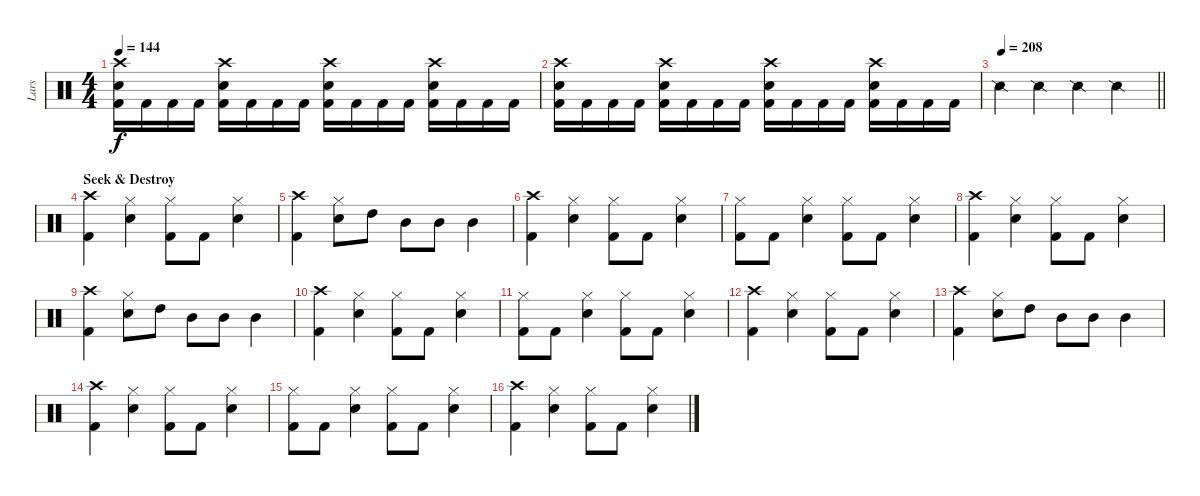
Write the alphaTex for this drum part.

\track ("Lars" "Lars") {instrument percussion}
\staff {score}
\articulation defaults
\ts (4 4)
\tempo 144
\clef neutral
\ks c
("Crash high (hit)" "Snare (hit) 2" "Kick (hit) 2").16{dy f} "Kick (hit) 2".16 "Kick (hit) 2".16 "Kick (hit) 2".16 ("Crash high (hit)" "Snare (hit) 2" "Kick (hit) 2").16 "Kick (hit) 2".16 "Kick (hit) 2".16 "Kick (hit) 2".16 ("Crash high (hit)" "Snare (hit) 2" "Kick (hit) 2").16 "Kick (hit) 2".16 "Kick (hit) 2".16 "Kick (hit) 2".16 ("Crash high (hit)" "Snare (hit) 2" "Kick (hit) 2").16 "Kick (hit) 2".16 "Kick (hit) 2".16 "Kick (hit) 2".16 |
("Crash high (hit)" "Snare (hit) 2" "Kick (hit) 2").16 "Kick (hit) 2".16 "Kick (hit) 2".16 "Kick (hit) 2".16 ("Crash high (hit)" "Snare (hit) 2" "Kick (hit) 2").16 "Kick (hit) 2".16 "Kick (hit) 2".16 "Kick (hit) 2".16 ("Crash high (hit)" "Snare (hit) 2" "Kick (hit) 2").16 "Kick (hit) 2".16 "Kick (hit) 2".16 "Kick (hit) 2".16 ("Crash high (hit)" "Snare (hit) 2" "Kick (hit) 2").16 "Kick (hit) 2".16 "Kick (hit) 2".16 "Kick (hit) 2".16 |
\tempo 208
\barLineRight lightlight "Snare (side stick) 2".4 "Snare (side stick) 2".4 "Snare (side stick) 2".4 "Snare (side stick) 2".4
|
\section ("" "Seek & Destroy")
("Crash high (hit)" "Kick (hit) 2").4 ("Hi-Hat (closed)" "Snare (hit) 2").4 ("Hi-Hat (closed)" "Kick (hit) 2").8 "Kick (hit) 2".8 ("Hi-Hat (closed)" "Snare (hit) 2").4 |
("Crash high (hit)" "Kick (hit) 2").4 ("Hi-Hat (closed)" "Snare (hit) 2").8 "High Tom (hit)".8 "Mid Tom (hit)".8 "Mid Tom (hit)".8 "Mid Tom (hit)".4 |
("Crash high (hit)" "Kick (hit) 2").4 ("Hi-Hat (closed)" "Snare (hit) 2").4 ("Hi-Hat (closed)" "Kick (hit) 2").8 "Kick (hit) 2".8 ("Hi-Hat (closed)" "Snare (hit) 2").4 |
("Hi-Hat (closed)" "Kick (hit) 2").8 "Kick (hit) 2".8 ("Hi-Hat (closed)" "Snare (hit) 2").4 ("Hi-Hat (closed)" "Kick (hit) 2").8 "Kick (hit) 2".8 ("Hi-Hat (closed)" "Snare (hit) 2").4 |
("Crash high (hit)" "Kick (hit) 2").4 ("Hi-Hat (closed)" "Snare (hit) 2").4 ("Hi-Hat (closed)" "Kick (hit) 2").8 "Kick (hit) 2".8 ("Hi-Hat (closed)" "Snare (hit) 2").4 |
("Crash high (hit)" "Kick (hit) 2").4 ("Hi-Hat (closed)" "Snare (hit) 2").8 "High Tom (hit)".8 "Mid Tom (hit)".8 "Mid Tom (hit)".8 "Mid Tom (hit)".4 |
("Crash high (hit)" "Kick (hit) 2").4 ("Hi-Hat (closed)" "Snare (hit) 2").4 ("Hi-Hat (closed)" "Kick (hit) 2").8 "Kick (hit) 2".8 ("Hi-Hat (closed)" "Snare (hit) 2").4 |
("Hi-Hat (closed)" "Kick (hit) 2").8 "Kick (hit) 2".8 ("Hi-Hat (closed)" "Snare (hit) 2").4 ("Hi-Hat (closed)" "Kick (hit) 2").8 "Kick (hit) 2".8 ("Hi-Hat (closed)" "Snare (hit) 2").4 |
("Crash high (hit)" "Kick (hit) 2").4 ("Hi-Hat (closed)" "Snare (hit) 2").4 ("Hi-Hat (closed)" "Kick (hit) 2").8 "Kick (hit) 2".8 ("Hi-Hat (closed)" "Snare (hit) 2").4 |
("Crash high (hit)" "Kick (hit) 2").4 ("Hi-Hat (closed)" "Snare (hit) 2").8 "High Tom (hit)".8 "Mid Tom (hit)".8 "Mid Tom (hit)".8 "Mid Tom (hit)".4 |
("Crash high (hit)" "Kick (hit) 2").4 ("Hi-Hat (closed)" "Snare (hit) 2").4 ("Hi-Hat (closed)" "Kick (hit) 2").8 "Kick (hit) 2".8 ("Hi-Hat (closed)" "Snare (hit) 2").4 |
("Hi-Hat (closed)" "Kick (hit) 2").8 "Kick (hit) 2".8 ("Hi-Hat (closed)" "Snare (hit) 2").4 ("Hi-Hat (closed)" "Kick (hit) 2").8 "Kick (hit) 2".8 ("Hi-Hat (closed)" "Snare (hit) 2").4 |
("Crash high (hit)" "Kick (hit) 2").4 ("Hi-Hat (closed)" "Snare (hit) 2").4 ("Hi-Hat (closed)" "Kick (hit) 2").8 "Kick (hit) 2".8 ("Hi-Hat (closed)" "Snare (hit) 2").4
